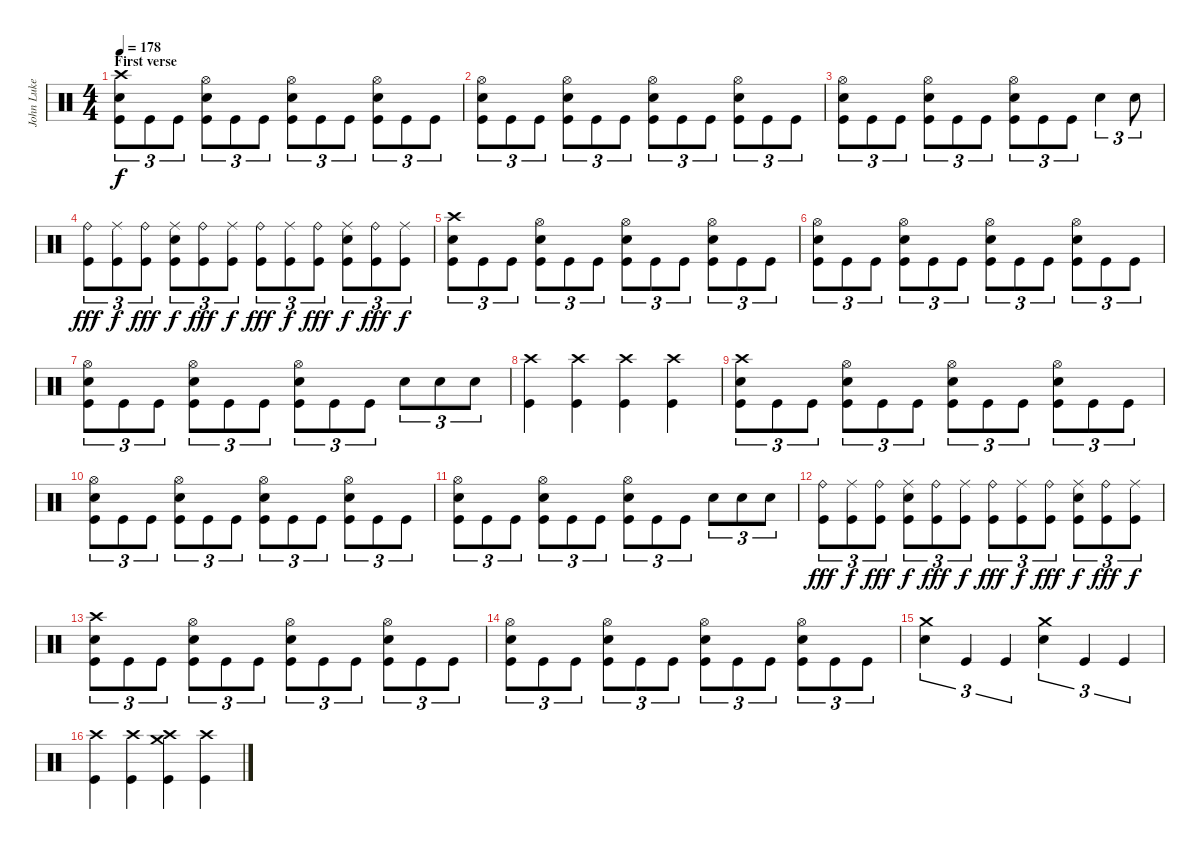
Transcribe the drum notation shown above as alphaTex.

\track ("John Luke (Drums)" "John Luke ") {instrument percussion}
\staff {score}
\articulation defaults
\ts (4 4)
\section ("" "First verse")
\tempo 178
\clef neutral
\ks c
("Crash high (hit)" "Electric Snare (hit)" "Kick (hit)").8{tu (3 2) dy f} "Kick (hit)".8{tu (3 2)} "Kick (hit)".8{tu (3 2)} ("Hi-Hat (open)" "Electric Snare (hit)" "Kick (hit)").8{tu (3 2)} "Kick (hit)".8{tu (3 2)} "Kick (hit)".8{tu (3 2)} ("Hi-Hat (open)" "Electric Snare (hit)" "Kick (hit)").8{tu (3 2)} "Kick (hit)".8{tu (3 2)} "Kick (hit)".8{tu (3 2)} ("Hi-Hat (open)" "Electric Snare (hit)" "Kick (hit)").8{tu (3 2)} "Kick (hit)".8{tu (3 2)} "Kick (hit)".8{tu (3 2)} |
("Hi-Hat (open)" "Electric Snare (hit)" "Kick (hit)").8{tu (3 2)} "Kick (hit)".8{tu (3 2)} "Kick (hit)".8{tu (3 2)} ("Hi-Hat (open)" "Electric Snare (hit)" "Kick (hit)").8{tu (3 2)} "Kick (hit)".8{tu (3 2)} "Kick (hit)".8{tu (3 2)} ("Hi-Hat (open)" "Electric Snare (hit)" "Kick (hit)").8{tu (3 2)} "Kick (hit)".8{tu (3 2)} "Kick (hit)".8{tu (3 2)} ("Hi-Hat (open)" "Electric Snare (hit)" "Kick (hit)").8{tu (3 2)} "Kick (hit)".8{tu (3 2)} "Kick (hit)".8{tu (3 2)} |
("Hi-Hat (open)" "Electric Snare (hit)" "Kick (hit)").8{tu (3 2)} "Kick (hit)".8{tu (3 2)} "Kick (hit)".8{tu (3 2)} ("Hi-Hat (open)" "Electric Snare (hit)" "Kick (hit)").8{tu (3 2)} "Kick (hit)".8{tu (3 2)} "Kick (hit)".8{tu (3 2)} ("Hi-Hat (open)" "Electric Snare (hit)" "Kick (hit)").8{tu (3 2)} "Kick (hit)".8{tu (3 2)} "Kick (hit)".8{tu (3 2)} "Electric Snare (hit)".4{tu (3 2)} "Electric Snare (hit)".8{tu (3 2)} |
("Ride (bell)" "Kick (hit)").8{tu (3 2) dy fff} ("Ride (middle)" "Kick (hit)").8{tu (3 2) dy f} ("Ride (bell)" "Kick (hit)").8{tu (3 2) dy fff} ("Ride (middle)" "Electric Snare (hit)" "Kick (hit)").8{tu (3 2) dy f} ("Ride (bell)" "Kick (hit)").8{tu (3 2) dy fff} ("Ride (middle)" "Kick (hit)").8{tu (3 2) dy f} ("Ride (bell)" "Kick (hit)").8{tu (3 2) dy fff} ("Ride (middle)" "Kick (hit)").8{tu (3 2) dy f} ("Ride (bell)" "Kick (hit)").8{tu (3 2) dy fff} ("Ride (middle)" "Electric Snare (hit)" "Kick (hit)").8{tu (3 2) dy f} ("Ride (bell)" "Kick (hit)").8{tu (3 2) dy fff} ("Ride (middle)" "Kick (hit)").8{tu (3 2) dy f} |
("Crash high (hit)" "Electric Snare (hit)" "Kick (hit)").8{tu (3 2)} "Kick (hit)".8{tu (3 2)} "Kick (hit)".8{tu (3 2)} ("Hi-Hat (open)" "Electric Snare (hit)" "Kick (hit)").8{tu (3 2)} "Kick (hit)".8{tu (3 2)} "Kick (hit)".8{tu (3 2)} ("Hi-Hat (open)" "Electric Snare (hit)" "Kick (hit)").8{tu (3 2)} "Kick (hit)".8{tu (3 2)} "Kick (hit)".8{tu (3 2)} ("Hi-Hat (open)" "Electric Snare (hit)" "Kick (hit)").8{tu (3 2)} "Kick (hit)".8{tu (3 2)} "Kick (hit)".8{tu (3 2)} |
("Hi-Hat (open)" "Electric Snare (hit)" "Kick (hit)").8{tu (3 2)} "Kick (hit)".8{tu (3 2)} "Kick (hit)".8{tu (3 2)} ("Hi-Hat (open)" "Electric Snare (hit)" "Kick (hit)").8{tu (3 2)} "Kick (hit)".8{tu (3 2)} "Kick (hit)".8{tu (3 2)} ("Hi-Hat (open)" "Electric Snare (hit)" "Kick (hit)").8{tu (3 2)} "Kick (hit)".8{tu (3 2)} "Kick (hit)".8{tu (3 2)} ("Hi-Hat (open)" "Electric Snare (hit)" "Kick (hit)").8{tu (3 2)} "Kick (hit)".8{tu (3 2)} "Kick (hit)".8{tu (3 2)} |
("Hi-Hat (open)" "Electric Snare (hit)" "Kick (hit)").8{tu (3 2)} "Kick (hit)".8{tu (3 2)} "Kick (hit)".8{tu (3 2)} ("Hi-Hat (open)" "Electric Snare (hit)" "Kick (hit)").8{tu (3 2)} "Kick (hit)".8{tu (3 2)} "Kick (hit)".8{tu (3 2)} ("Hi-Hat (open)" "Electric Snare (hit)" "Kick (hit)").8{tu (3 2)} "Kick (hit)".8{tu (3 2)} "Kick (hit)".8{tu (3 2)} "Electric Snare (hit)".8{tu (3 2)} "Electric Snare (hit)".8{tu (3 2)} "Electric Snare (hit)".8{tu (3 2)} |
("Crash high (hit)" "Kick (hit)").4 ("Crash high (hit)" "Kick (hit)").4 ("Crash high (hit)" "Kick (hit)").4 ("Crash high (hit)" "Kick (hit)").4 |
("Crash high (hit)" "Electric Snare (hit)" "Kick (hit)").8{tu (3 2)} "Kick (hit)".8{tu (3 2)} "Kick (hit)".8{tu (3 2)} ("Hi-Hat (open)" "Electric Snare (hit)" "Kick (hit)").8{tu (3 2)} "Kick (hit)".8{tu (3 2)} "Kick (hit)".8{tu (3 2)} ("Hi-Hat (open)" "Electric Snare (hit)" "Kick (hit)").8{tu (3 2)} "Kick (hit)".8{tu (3 2)} "Kick (hit)".8{tu (3 2)} ("Hi-Hat (open)" "Electric Snare (hit)" "Kick (hit)").8{tu (3 2)} "Kick (hit)".8{tu (3 2)} "Kick (hit)".8{tu (3 2)} |
("Hi-Hat (open)" "Electric Snare (hit)" "Kick (hit)").8{tu (3 2)} "Kick (hit)".8{tu (3 2)} "Kick (hit)".8{tu (3 2)} ("Hi-Hat (open)" "Electric Snare (hit)" "Kick (hit)").8{tu (3 2)} "Kick (hit)".8{tu (3 2)} "Kick (hit)".8{tu (3 2)} ("Hi-Hat (open)" "Electric Snare (hit)" "Kick (hit)").8{tu (3 2)} "Kick (hit)".8{tu (3 2)} "Kick (hit)".8{tu (3 2)} ("Hi-Hat (open)" "Electric Snare (hit)" "Kick (hit)").8{tu (3 2)} "Kick (hit)".8{tu (3 2)} "Kick (hit)".8{tu (3 2)} |
("Hi-Hat (open)" "Electric Snare (hit)" "Kick (hit)").8{tu (3 2)} "Kick (hit)".8{tu (3 2)} "Kick (hit)".8{tu (3 2)} ("Hi-Hat (open)" "Electric Snare (hit)" "Kick (hit)").8{tu (3 2)} "Kick (hit)".8{tu (3 2)} "Kick (hit)".8{tu (3 2)} ("Hi-Hat (open)" "Electric Snare (hit)" "Kick (hit)").8{tu (3 2)} "Kick (hit)".8{tu (3 2)} "Kick (hit)".8{tu (3 2)} "Electric Snare (hit)".8{tu (3 2)} "Electric Snare (hit)".8{tu (3 2)} "Electric Snare (hit)".8{tu (3 2)} |
("Ride (bell)" "Kick (hit)").8{tu (3 2) dy fff} ("Ride (middle)" "Kick (hit)").8{tu (3 2) dy f} ("Ride (bell)" "Kick (hit)").8{tu (3 2) dy fff} ("Ride (middle)" "Electric Snare (hit)" "Kick (hit)").8{tu (3 2) dy f} ("Ride (bell)" "Kick (hit)").8{tu (3 2) dy fff} ("Ride (middle)" "Kick (hit)").8{tu (3 2) dy f} ("Ride (bell)" "Kick (hit)").8{tu (3 2) dy fff} ("Ride (middle)" "Kick (hit)").8{tu (3 2) dy f} ("Ride (bell)" "Kick (hit)").8{tu (3 2) dy fff} ("Ride (middle)" "Electric Snare (hit)" "Kick (hit)").8{tu (3 2) dy f} ("Ride (bell)" "Kick (hit)").8{tu (3 2) dy fff} ("Ride (middle)" "Kick (hit)").8{tu (3 2) dy f} |
("Crash high (hit)" "Electric Snare (hit)" "Kick (hit)").8{tu (3 2)} "Kick (hit)".8{tu (3 2)} "Kick (hit)".8{tu (3 2)} ("Hi-Hat (open)" "Electric Snare (hit)" "Kick (hit)").8{tu (3 2)} "Kick (hit)".8{tu (3 2)} "Kick (hit)".8{tu (3 2)} ("Hi-Hat (open)" "Electric Snare (hit)" "Kick (hit)").8{tu (3 2)} "Kick (hit)".8{tu (3 2)} "Kick (hit)".8{tu (3 2)} ("Hi-Hat (open)" "Electric Snare (hit)" "Kick (hit)").8{tu (3 2)} "Kick (hit)".8{tu (3 2)} "Kick (hit)".8{tu (3 2)} |
("Hi-Hat (open)" "Electric Snare (hit)" "Kick (hit)").8{tu (3 2)} "Kick (hit)".8{tu (3 2)} "Kick (hit)".8{tu (3 2)} ("Hi-Hat (open)" "Electric Snare (hit)" "Kick (hit)").8{tu (3 2)} "Kick (hit)".8{tu (3 2)} "Kick (hit)".8{tu (3 2)} ("Hi-Hat (open)" "Electric Snare (hit)" "Kick (hit)").8{tu (3 2)} "Kick (hit)".8{tu (3 2)} "Kick (hit)".8{tu (3 2)} ("Hi-Hat (open)" "Electric Snare (hit)" "Kick (hit)").8{tu (3 2)} "Kick (hit)".8{tu (3 2)} "Kick (hit)".8{tu (3 2)} |
("Crash medium (hit)" "Electric Snare (hit)").4{tu (3 2)} "Kick (hit)".4{tu (3 2)} "Kick (hit)".4{tu (3 2)} ("Crash medium (hit)" "Electric Snare (hit)").4{tu (3 2)} "Kick (hit)".4{tu (3 2)} "Kick (hit)".4{tu (3 2)} |
("Crash high (hit)" "Kick (hit)").4 ("Crash high (hit)" "Kick (hit)").4 ("Crash high (hit)" "Crash medium (hit)" "Kick (hit)").4 ("Crash high (hit)" "Kick (hit)").4
